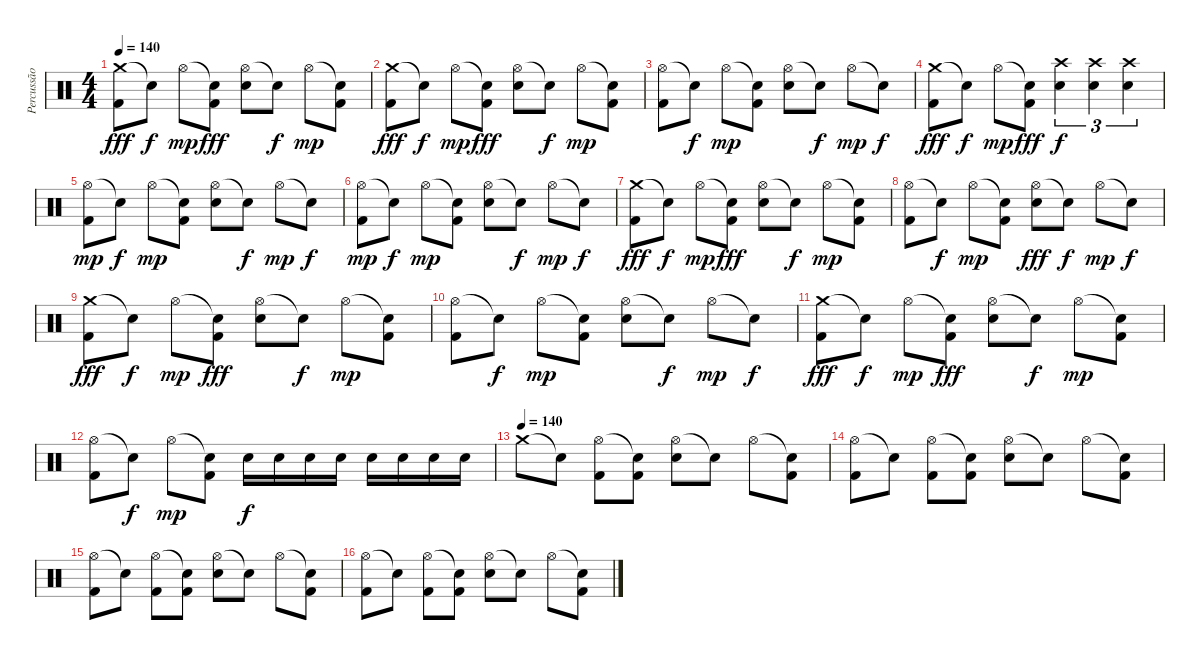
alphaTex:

\track ("Percussão" "Percussão") {instrument percussion}
\staff {score}
\articulation defaults
\ts (4 4)
\tempo 140
\clef neutral
\ks c
("Crash medium (hit)" "Kick (hit) 2").8{dy fff} "Snare (hit)"{t}.8{dy f} "Hi-Hat (open)".8{dy mp} ("Snare (hit)"{t} "Kick (hit) 2").8{dy fff} ("Hi-Hat (open)" "Electric Snare (hit)").8 "Snare (hit)"{t}.8{dy f} "Hi-Hat (open)".8{dy mp} ("Snare (hit)"{t} "Kick (hit) 2").8 |
("Crash medium (hit)" "Kick (hit) 2").8{dy fff} "Snare (hit)"{t}.8{dy f} "Hi-Hat (open)".8{dy mp} ("Snare (hit)"{t} "Kick (hit) 2").8{dy fff} ("Hi-Hat (open)" "Electric Snare (hit)").8 "Snare (hit)"{t}.8{dy f} "Hi-Hat (open)".8{dy mp} ("Snare (hit)"{t} "Kick (hit) 2").8 |
("Hi-Hat (open)" "Kick (hit) 2").8 "Snare (hit)"{t}.8{dy f} "Hi-Hat (open)".8{dy mp} ("Snare (hit)"{t} "Kick (hit) 2").8 ("Hi-Hat (open)" "Electric Snare (hit)").8 "Snare (hit)"{t}.8{dy f} "Hi-Hat (open)".8{dy mp} "Snare (hit)"{t}.8{dy f} |
("Crash medium (hit)" "Kick (hit) 2").8{dy fff} "Snare (hit)"{t}.8{dy f} "Hi-Hat (open)".8{dy mp} ("Snare (hit)"{t} "Kick (hit) 2").8{dy fff} ("Crash high (hit)" "Electric Snare (hit)").4{tu (3 2) dy f} ("Crash high (hit)" "Electric Snare (hit)").4{tu (3 2)} ("Crash high (hit)" "Electric Snare (hit)").4{tu (3 2)} |
("Hi-Hat (open)" "Kick (hit) 2").8{dy mp} "Snare (hit)"{t}.8{dy f} "Hi-Hat (open)".8{dy mp} ("Snare (hit)"{t} "Kick (hit) 2").8 ("Hi-Hat (open)" "Electric Snare (hit)").8 "Snare (hit)"{t}.8{dy f} "Hi-Hat (open)".8{dy mp} "Snare (hit)"{t}.8{dy f} |
("Hi-Hat (open)" "Kick (hit) 2").8{dy mp} "Snare (hit)"{t}.8{dy f} "Hi-Hat (open)".8{dy mp} ("Snare (hit)"{t} "Kick (hit) 2").8 ("Hi-Hat (open)" "Electric Snare (hit)").8 "Snare (hit)"{t}.8{dy f} "Hi-Hat (open)".8{dy mp} "Snare (hit)"{t}.8{dy f} |
("Crash medium (hit)" "Kick (hit) 2").8{dy fff} "Snare (hit)"{t}.8{dy f} "Hi-Hat (open)".8{dy mp} ("Snare (hit)"{t} "Kick (hit) 2").8{dy fff} ("Hi-Hat (open)" "Electric Snare (hit)").8 "Snare (hit)"{t}.8{dy f} "Hi-Hat (open)".8{dy mp} ("Snare (hit)"{t} "Kick (hit) 2").8 |
("Hi-Hat (open)" "Kick (hit) 2").8 "Snare (hit)"{t}.8{dy f} "Hi-Hat (open)".8{dy mp} ("Snare (hit)"{t} "Kick (hit) 2").8 ("Hi-Hat (open)" "Electric Snare (hit)").8{dy fff} "Snare (hit)"{t}.8{dy f} "Hi-Hat (open)".8{dy mp} "Snare (hit)"{t}.8{dy f} |
("Crash medium (hit)" "Kick (hit) 2").8{dy fff} "Snare (hit)"{t}.8{dy f} "Hi-Hat (open)".8{dy mp} ("Snare (hit)"{t} "Kick (hit) 2").8{dy fff} ("Hi-Hat (open)" "Electric Snare (hit)").8 "Snare (hit)"{t}.8{dy f} "Hi-Hat (open)".8{dy mp} ("Snare (hit)"{t} "Kick (hit) 2").8 |
("Hi-Hat (open)" "Kick (hit) 2").8 "Snare (hit)"{t}.8{dy f} "Hi-Hat (open)".8{dy mp} ("Snare (hit)"{t} "Kick (hit) 2").8 ("Hi-Hat (open)" "Electric Snare (hit)").8 "Snare (hit)"{t}.8{dy f} "Hi-Hat (open)".8{dy mp} "Snare (hit)"{t}.8{dy f} |
("Crash medium (hit)" "Kick (hit) 2").8{dy fff} "Snare (hit)"{t}.8{dy f} "Hi-Hat (open)".8{dy mp} ("Snare (hit)"{t} "Kick (hit) 2").8{dy fff} ("Hi-Hat (open)" "Electric Snare (hit)").8 "Snare (hit)"{t}.8{dy f} "Hi-Hat (open)".8{dy mp} ("Snare (hit)"{t} "Kick (hit) 2").8 |
("Hi-Hat (open)" "Kick (hit) 2").8 "Snare (hit)"{t}.8{dy f} "Hi-Hat (open)".8{dy mp} ("Snare (hit)"{t} "Kick (hit) 2").8 "Electric Snare (hit)".16{dy f} "Electric Snare (hit)".16 "Electric Snare (hit)".16 "Electric Snare (hit)".16 "Electric Snare (hit)".16 "Electric Snare (hit)".16 "Electric Snare (hit)".16 "Electric Snare (hit)".16 |
\tempo (140)
"Crash medium (hit)".8 "Snare (hit)"{t}.8 ("Hi-Hat (open)" "Kick (hit) 2").8 ("Snare (hit)"{t} "Kick (hit) 2").8 ("Hi-Hat (open)" "Electric Snare (hit)").8 "Snare (hit)"{t}.8 "Hi-Hat (open)".8 ("Snare (hit)"{t} "Kick (hit) 2").8 |
("Hi-Hat (open)" "Kick (hit) 2").8 "Snare (hit)"{t}.8 ("Hi-Hat (open)" "Kick (hit) 2").8 ("Snare (hit)"{t} "Kick (hit) 2").8 ("Hi-Hat (open)" "Electric Snare (hit)").8 "Snare (hit)"{t}.8 "Hi-Hat (open)".8 ("Snare (hit)"{t} "Kick (hit) 2").8 |
("Hi-Hat (open)" "Kick (hit) 2").8 "Snare (hit)"{t}.8 ("Hi-Hat (open)" "Kick (hit) 2").8 ("Snare (hit)"{t} "Kick (hit) 2").8 ("Hi-Hat (open)" "Electric Snare (hit)").8 "Snare (hit)"{t}.8 "Hi-Hat (open)".8 ("Snare (hit)"{t} "Kick (hit) 2").8 |
("Hi-Hat (open)" "Kick (hit) 2").8 "Snare (hit)"{t}.8 ("Hi-Hat (open)" "Kick (hit) 2").8 ("Snare (hit)"{t} "Kick (hit) 2").8 ("Hi-Hat (open)" "Electric Snare (hit)").8 "Snare (hit)"{t}.8 "Hi-Hat (open)".8 ("Snare (hit)"{t} "Kick (hit) 2").8
